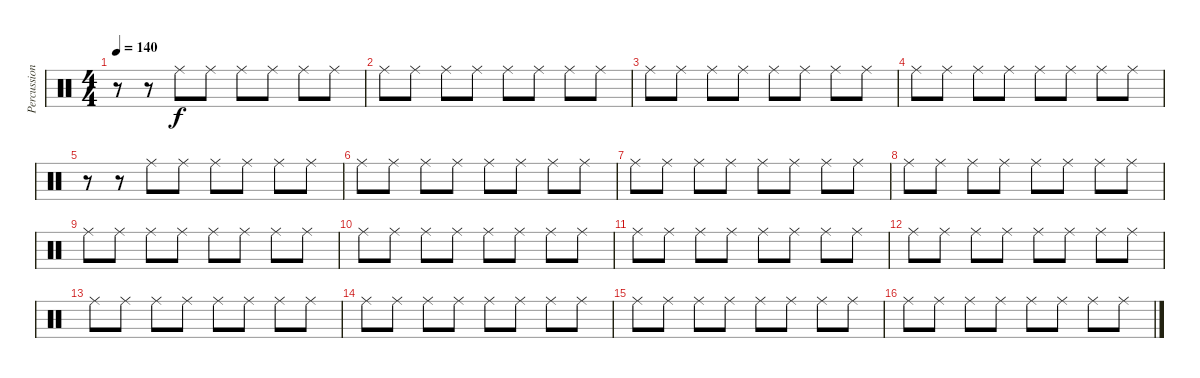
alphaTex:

\track ("Percussion" "Percussion") {instrument percussion}
\staff {score}
\articulation defaults
\ts (4 4)
\tempo 140
\clef neutral
\ks c
r.8{dy ff} r.8 "Ride (middle)".8{dy f} "Ride (middle)".8 "Ride (middle)".8 "Ride (middle)".8 "Ride (middle)".8 "Ride (middle)".8 |
"Ride (middle)".8 "Ride (middle)".8 "Ride (middle)".8 "Ride (middle)".8 "Ride (middle)".8 "Ride (middle)".8 "Ride (middle)".8 "Ride (middle)".8 |
"Ride (middle)".8 "Ride (middle)".8 "Ride (middle)".8 "Ride (middle)".8 "Ride (middle)".8 "Ride (middle)".8 "Ride (middle)".8 "Ride (middle)".8 |
"Ride (middle)".8 "Ride (middle)".8 "Ride (middle)".8 "Ride (middle)".8 "Ride (middle)".8 "Ride (middle)".8 "Ride (middle)".8 "Ride (middle)".8 |
r.8 r.8 "Ride (middle)".8 "Ride (middle)".8 "Ride (middle)".8 "Ride (middle)".8 "Ride (middle)".8 "Ride (middle)".8 |
"Ride (middle)".8 "Ride (middle)".8 "Ride (middle)".8 "Ride (middle)".8 "Ride (middle)".8 "Ride (middle)".8 "Ride (middle)".8 "Ride (middle)".8 |
"Ride (middle)".8 "Ride (middle)".8 "Ride (middle)".8 "Ride (middle)".8 "Ride (middle)".8 "Ride (middle)".8 "Ride (middle)".8 "Ride (middle)".8 |
"Ride (middle)".8 "Ride (middle)".8 "Ride (middle)".8 "Ride (middle)".8 "Ride (middle)".8 "Ride (middle)".8 "Ride (middle)".8 "Ride (middle)".8 |
"Ride (middle)".8 "Ride (middle)".8 "Ride (middle)".8 "Ride (middle)".8 "Ride (middle)".8 "Ride (middle)".8 "Ride (middle)".8 "Ride (middle)".8 |
"Ride (middle)".8 "Ride (middle)".8 "Ride (middle)".8 "Ride (middle)".8 "Ride (middle)".8 "Ride (middle)".8 "Ride (middle)".8 "Ride (middle)".8 |
"Ride (middle)".8 "Ride (middle)".8 "Ride (middle)".8 "Ride (middle)".8 "Ride (middle)".8 "Ride (middle)".8 "Ride (middle)".8 "Ride (middle)".8 |
"Ride (middle)".8 "Ride (middle)".8 "Ride (middle)".8 "Ride (middle)".8 "Ride (middle)".8 "Ride (middle)".8 "Ride (middle)".8 "Ride (middle)".8 |
"Ride (middle)".8 "Ride (middle)".8 "Ride (middle)".8 "Ride (middle)".8 "Ride (middle)".8 "Ride (middle)".8 "Ride (middle)".8 "Ride (middle)".8 |
"Ride (middle)".8 "Ride (middle)".8 "Ride (middle)".8 "Ride (middle)".8 "Ride (middle)".8 "Ride (middle)".8 "Ride (middle)".8 "Ride (middle)".8 |
"Ride (middle)".8 "Ride (middle)".8 "Ride (middle)".8 "Ride (middle)".8 "Ride (middle)".8 "Ride (middle)".8 "Ride (middle)".8 "Ride (middle)".8 |
"Ride (middle)".8 "Ride (middle)".8 "Ride (middle)".8 "Ride (middle)".8 "Ride (middle)".8 "Ride (middle)".8 "Ride (middle)".8 "Ride (middle)".8
